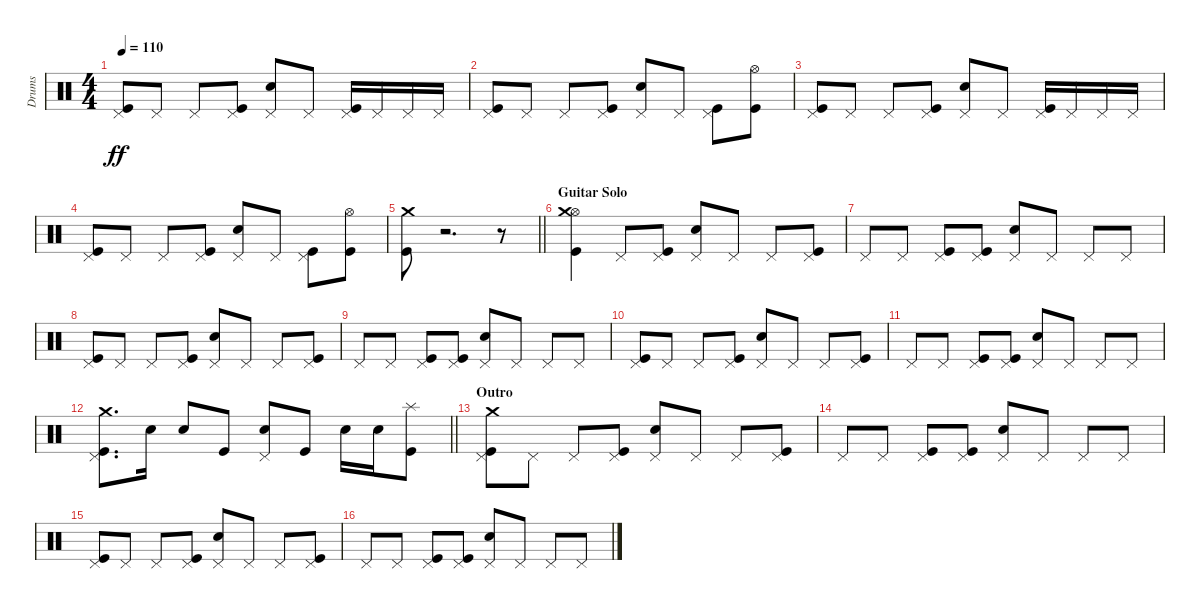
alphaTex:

\track ("Drums" "Drums") {instrument percussion}
\staff {score}
\articulation defaults
\ts (4 4)
\tempo 110
\clef neutral
\ks c
("Kick (hit)" "Pedal Hi-Hat (hit)").8{dy ff} "Pedal Hi-Hat (hit)".8 "Pedal Hi-Hat (hit)".8 ("Kick (hit)" "Pedal Hi-Hat (hit)").8 ("Electric Snare (hit)" "Pedal Hi-Hat (hit)").8 "Pedal Hi-Hat (hit)".8 ("Kick (hit)" "Pedal Hi-Hat (hit)").16 "Pedal Hi-Hat (hit)".16 "Pedal Hi-Hat (hit)".16 "Pedal Hi-Hat (hit)".16 |
("Kick (hit)" "Pedal Hi-Hat (hit)").8 "Pedal Hi-Hat (hit)".8 "Pedal Hi-Hat (hit)".8 ("Kick (hit)" "Pedal Hi-Hat (hit)").8 ("Electric Snare (hit)" "Pedal Hi-Hat (hit)").8 "Pedal Hi-Hat (hit)".8 ("Kick (hit)" "Pedal Hi-Hat (hit)").8 ("Kick (hit)" "Hi-Hat (open)").8 |
("Kick (hit)" "Pedal Hi-Hat (hit)").8 "Pedal Hi-Hat (hit)".8 "Pedal Hi-Hat (hit)".8 ("Kick (hit)" "Pedal Hi-Hat (hit)").8 ("Electric Snare (hit)" "Pedal Hi-Hat (hit)").8 "Pedal Hi-Hat (hit)".8 ("Kick (hit)" "Pedal Hi-Hat (hit)").16 "Pedal Hi-Hat (hit)".16 "Pedal Hi-Hat (hit)".16 "Pedal Hi-Hat (hit)".16 |
("Kick (hit)" "Pedal Hi-Hat (hit)").8 "Pedal Hi-Hat (hit)".8 "Pedal Hi-Hat (hit)".8 ("Kick (hit)" "Pedal Hi-Hat (hit)").8 ("Electric Snare (hit)" "Pedal Hi-Hat (hit)").8 "Pedal Hi-Hat (hit)".8 ("Kick (hit)" "Pedal Hi-Hat (hit)").8 ("Kick (hit)" "Hi-Hat (open)").8 |
\barLineRight lightlight
("Kick (hit)" "Crash medium (hit)").8 r.2{d} r.8 |
\section ("" "Guitar Solo")
("Kick (hit)" "Hi-Hat (open)" "Crash medium (hit)").4 "Pedal Hi-Hat (hit)".8 ("Kick (hit)" "Pedal Hi-Hat (hit)").8 ("Electric Snare (hit)" "Pedal Hi-Hat (hit)").8 "Pedal Hi-Hat (hit)".8 "Pedal Hi-Hat (hit)".8 ("Kick (hit)" "Pedal Hi-Hat (hit)").8 |
"Pedal Hi-Hat (hit)".8 "Pedal Hi-Hat (hit)".8 ("Kick (hit)" "Pedal Hi-Hat (hit)").8 ("Kick (hit)" "Pedal Hi-Hat (hit)").8 ("Electric Snare (hit)" "Pedal Hi-Hat (hit)").8 "Pedal Hi-Hat (hit)".8 "Pedal Hi-Hat (hit)".8 "Pedal Hi-Hat (hit)".8 |
("Kick (hit)" "Pedal Hi-Hat (hit)").8 "Pedal Hi-Hat (hit)".8 "Pedal Hi-Hat (hit)".8 ("Kick (hit)" "Pedal Hi-Hat (hit)").8 ("Electric Snare (hit)" "Pedal Hi-Hat (hit)").8 "Pedal Hi-Hat (hit)".8 "Pedal Hi-Hat (hit)".8 ("Kick (hit)" "Pedal Hi-Hat (hit)").8 |
"Pedal Hi-Hat (hit)".8 "Pedal Hi-Hat (hit)".8 ("Kick (hit)" "Pedal Hi-Hat (hit)").8 ("Kick (hit)" "Pedal Hi-Hat (hit)").8 ("Electric Snare (hit)" "Pedal Hi-Hat (hit)").8 "Pedal Hi-Hat (hit)".8 "Pedal Hi-Hat (hit)".8 "Pedal Hi-Hat (hit)".8 |
("Kick (hit)" "Pedal Hi-Hat (hit)").8 "Pedal Hi-Hat (hit)".8 "Pedal Hi-Hat (hit)".8 ("Kick (hit)" "Pedal Hi-Hat (hit)").8 ("Electric Snare (hit)" "Pedal Hi-Hat (hit)").8 "Pedal Hi-Hat (hit)".8 "Pedal Hi-Hat (hit)".8 ("Kick (hit)" "Pedal Hi-Hat (hit)").8 |
"Pedal Hi-Hat (hit)".8 "Pedal Hi-Hat (hit)".8 ("Kick (hit)" "Pedal Hi-Hat (hit)").8 ("Kick (hit)" "Pedal Hi-Hat (hit)").8 ("Electric Snare (hit)" "Pedal Hi-Hat (hit)").8 "Pedal Hi-Hat (hit)".8 "Pedal Hi-Hat (hit)".8 "Pedal Hi-Hat (hit)".8 |
\barLineRight lightlight
("Kick (hit)" "Pedal Hi-Hat (hit)" "Crash medium (hit)").8{d} "Electric Snare (hit)".16 "Electric Snare (hit)".8 "Kick (hit)".8 ("Electric Snare (hit)" "Pedal Hi-Hat (hit)").8 "Kick (hit)".8 "Electric Snare (hit)".16 "Electric Snare (hit)".16 ("Kick (hit)" "Splash (hit)").8 |
\section ("" "Outro")
("Kick (hit)" "Pedal Hi-Hat (hit)" "Crash medium (hit)").8 "Pedal Hi-Hat (hit)".8 "Pedal Hi-Hat (hit)".8 ("Kick (hit)" "Pedal Hi-Hat (hit)").8 ("Electric Snare (hit)" "Pedal Hi-Hat (hit)").8 "Pedal Hi-Hat (hit)".8 "Pedal Hi-Hat (hit)".8 ("Kick (hit)" "Pedal Hi-Hat (hit)").8 |
"Pedal Hi-Hat (hit)".8 "Pedal Hi-Hat (hit)".8 ("Kick (hit)" "Pedal Hi-Hat (hit)").8 ("Kick (hit)" "Pedal Hi-Hat (hit)").8 ("Electric Snare (hit)" "Pedal Hi-Hat (hit)").8 "Pedal Hi-Hat (hit)".8 "Pedal Hi-Hat (hit)".8 "Pedal Hi-Hat (hit)".8 |
("Kick (hit)" "Pedal Hi-Hat (hit)").8 "Pedal Hi-Hat (hit)".8 "Pedal Hi-Hat (hit)".8 ("Kick (hit)" "Pedal Hi-Hat (hit)").8 ("Electric Snare (hit)" "Pedal Hi-Hat (hit)").8 "Pedal Hi-Hat (hit)".8 "Pedal Hi-Hat (hit)".8 ("Kick (hit)" "Pedal Hi-Hat (hit)").8 |
"Pedal Hi-Hat (hit)".8 "Pedal Hi-Hat (hit)".8 ("Kick (hit)" "Pedal Hi-Hat (hit)").8 ("Kick (hit)" "Pedal Hi-Hat (hit)").8 ("Electric Snare (hit)" "Pedal Hi-Hat (hit)").8 "Pedal Hi-Hat (hit)".8 "Pedal Hi-Hat (hit)".8 "Pedal Hi-Hat (hit)".8
